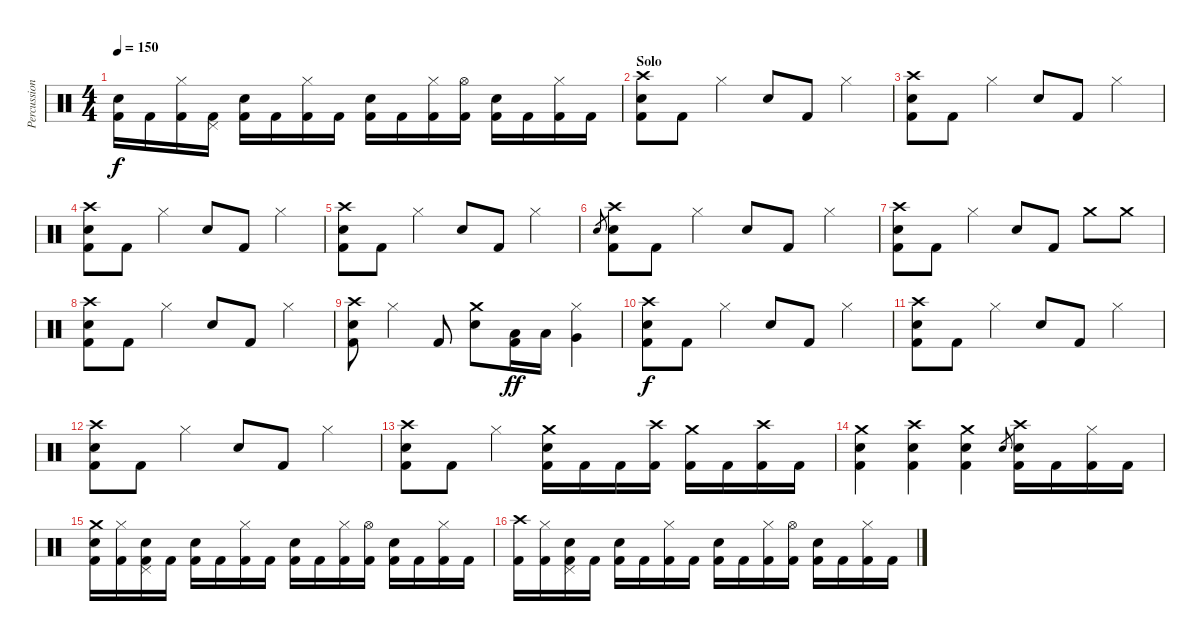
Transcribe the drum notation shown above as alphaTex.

\track ("Percussioni" "Percussion") {instrument percussion}
\staff {score}
\articulation defaults
\ts (4 4)
\tempo 150
\clef neutral
\ks c
("Snare (hit) 2" "Kick (hit) 2").16{dy f} "Kick (hit) 2".16 ("Kick (hit) 2" "Hi-Hat (closed)").16 ("Kick (hit) 2" "Pedal Hi-Hat (hit)").16 ("Snare (hit) 2" "Kick (hit) 2").16 "Kick (hit) 2".16 ("Kick (hit) 2" "Hi-Hat (closed)").16 "Kick (hit) 2".16 ("Snare (hit) 2" "Kick (hit) 2").16 "Kick (hit) 2".16 ("Kick (hit) 2" "Hi-Hat (closed)").16 ("Kick (hit) 2" "Hi-Hat (open)").16 ("Snare (hit) 2" "Kick (hit) 2").16 "Kick (hit) 2".16 ("Kick (hit) 2" "Hi-Hat (closed)").16 "Kick (hit) 2".16 |
\section ("" "Solo")
("Crash high (hit)" "Snare (hit) 2" "Kick (hit) 2").8 "Kick (hit) 2".8 "Hi-Hat (closed)".4 "Snare (hit) 2".8 "Kick (hit) 2".8 "Hi-Hat (closed)".4 |
("Crash high (hit)" "Snare (hit) 2" "Kick (hit) 2").8 "Kick (hit) 2".8 "Hi-Hat (closed)".4 "Snare (hit) 2".8 "Kick (hit) 2".8 "Hi-Hat (closed)".4 |
("Crash high (hit)" "Snare (hit) 2" "Kick (hit) 2").8 "Kick (hit) 2".8 "Hi-Hat (closed)".4 "Snare (hit) 2".8 "Kick (hit) 2".8 "Hi-Hat (closed)".4 |
("Crash high (hit)" "Snare (hit) 2" "Kick (hit) 2").8 "Kick (hit) 2".8 "Hi-Hat (closed)".4 "Snare (hit) 2".8 "Kick (hit) 2".8 "Hi-Hat (closed)".4 |
"Snare (hit) 2".8{gr} ("Crash high (hit)" "Snare (hit) 2" "Kick (hit) 2").8 "Kick (hit) 2".8 "Hi-Hat (closed)".4 "Snare (hit) 2".8 "Kick (hit) 2".8 "Hi-Hat (closed)".4 |
("Crash high (hit)" "Snare (hit) 2" "Kick (hit) 2").8 "Kick (hit) 2".8 "Hi-Hat (closed)".4 "Snare (hit) 2".8 "Kick (hit) 2".8 "Crash medium (hit)".8 "Crash medium (hit)".8 |
("Crash high (hit)" "Snare (hit) 2" "Kick (hit) 2").8 "Kick (hit) 2".8 "Hi-Hat (closed)".4 "Snare (hit) 2".8 "Kick (hit) 2".8 "Hi-Hat (closed)".4 |
("Crash high (hit)" "Snare (hit) 2" "Kick (hit) 2").8 "Hi-Hat (closed)".4 "Kick (hit) 2".8 ("Crash medium (hit)" "Snare (hit) 2").8 ("Low Tom (hit)" "Kick (hit) 2").16{dy ff} "Low Tom (hit)".16 ("Very Low Tom (hit)" "Hi-Hat (closed)").4 |
("Crash high (hit)" "Snare (hit) 2" "Kick (hit) 2").8{dy f} "Kick (hit) 2".8 "Hi-Hat (closed)".4 "Snare (hit) 2".8 "Kick (hit) 2".8 "Hi-Hat (closed)".4 |
("Crash high (hit)" "Snare (hit) 2" "Kick (hit) 2").8 "Kick (hit) 2".8 "Hi-Hat (closed)".4 "Snare (hit) 2".8 "Kick (hit) 2".8 "Hi-Hat (closed)".4 |
("Crash high (hit)" "Snare (hit) 2" "Kick (hit) 2").8 "Kick (hit) 2".8 "Hi-Hat (closed)".4 "Snare (hit) 2".8 "Kick (hit) 2".8 "Hi-Hat (closed)".4 |
("Crash high (hit)" "Snare (hit) 2" "Kick (hit) 2").8 "Kick (hit) 2".8 "Hi-Hat (closed)".4 ("Crash medium (hit)" "Snare (hit) 2" "Kick (hit) 2").16 "Kick (hit) 2".16 "Kick (hit) 2".16 ("Crash high (hit)" "Kick (hit) 2").16 ("Crash medium (hit)" "Kick (hit) 2").16 "Kick (hit) 2".16 ("Crash high (hit)" "Kick (hit) 2").16 "Kick (hit) 2".16 |
("Crash medium (hit)" "Snare (hit) 2" "Kick (hit) 2").4 ("Crash high (hit)" "Snare (hit) 2" "Kick (hit) 2").4 ("Crash medium (hit)" "Snare (hit) 2" "Kick (hit) 2").4 "Snare (hit) 2".8{gr} ("Crash high (hit)" "Snare (hit) 2" "Kick (hit) 2").16 "Kick (hit) 2".16 ("Kick (hit) 2" "Hi-Hat (closed)").16 "Kick (hit) 2".16 |
("Crash medium (hit)" "Snare (hit) 2" "Kick (hit) 2").16 ("Kick (hit) 2" "Hi-Hat (closed)").16 ("Snare (hit) 2" "Kick (hit) 2" "Pedal Hi-Hat (hit)").16 "Kick (hit) 2".16 ("Snare (hit) 2" "Kick (hit) 2").16 "Kick (hit) 2".16 ("Kick (hit) 2" "Hi-Hat (closed)").16 "Kick (hit) 2".16 ("Snare (hit) 2" "Kick (hit) 2").16 "Kick (hit) 2".16 ("Kick (hit) 2" "Hi-Hat (closed)").16 ("Kick (hit) 2" "Hi-Hat (open)").16 ("Snare (hit) 2" "Kick (hit) 2").16 "Kick (hit) 2".16 ("Kick (hit) 2" "Hi-Hat (closed)").16 "Kick (hit) 2".16 |
("Crash high (hit)" "Kick (hit) 2").16 ("Kick (hit) 2" "Hi-Hat (closed)").16 ("Snare (hit) 2" "Kick (hit) 2" "Pedal Hi-Hat (hit)").16 "Kick (hit) 2".16 ("Snare (hit) 2" "Kick (hit) 2").16 "Kick (hit) 2".16 ("Kick (hit) 2" "Hi-Hat (closed)").16 "Kick (hit) 2".16 ("Snare (hit) 2" "Kick (hit) 2").16 "Kick (hit) 2".16 ("Kick (hit) 2" "Hi-Hat (closed)").16 ("Kick (hit) 2" "Hi-Hat (open)").16 ("Snare (hit) 2" "Kick (hit) 2").16 "Kick (hit) 2".16 ("Kick (hit) 2" "Hi-Hat (closed)").16 "Kick (hit) 2".16
